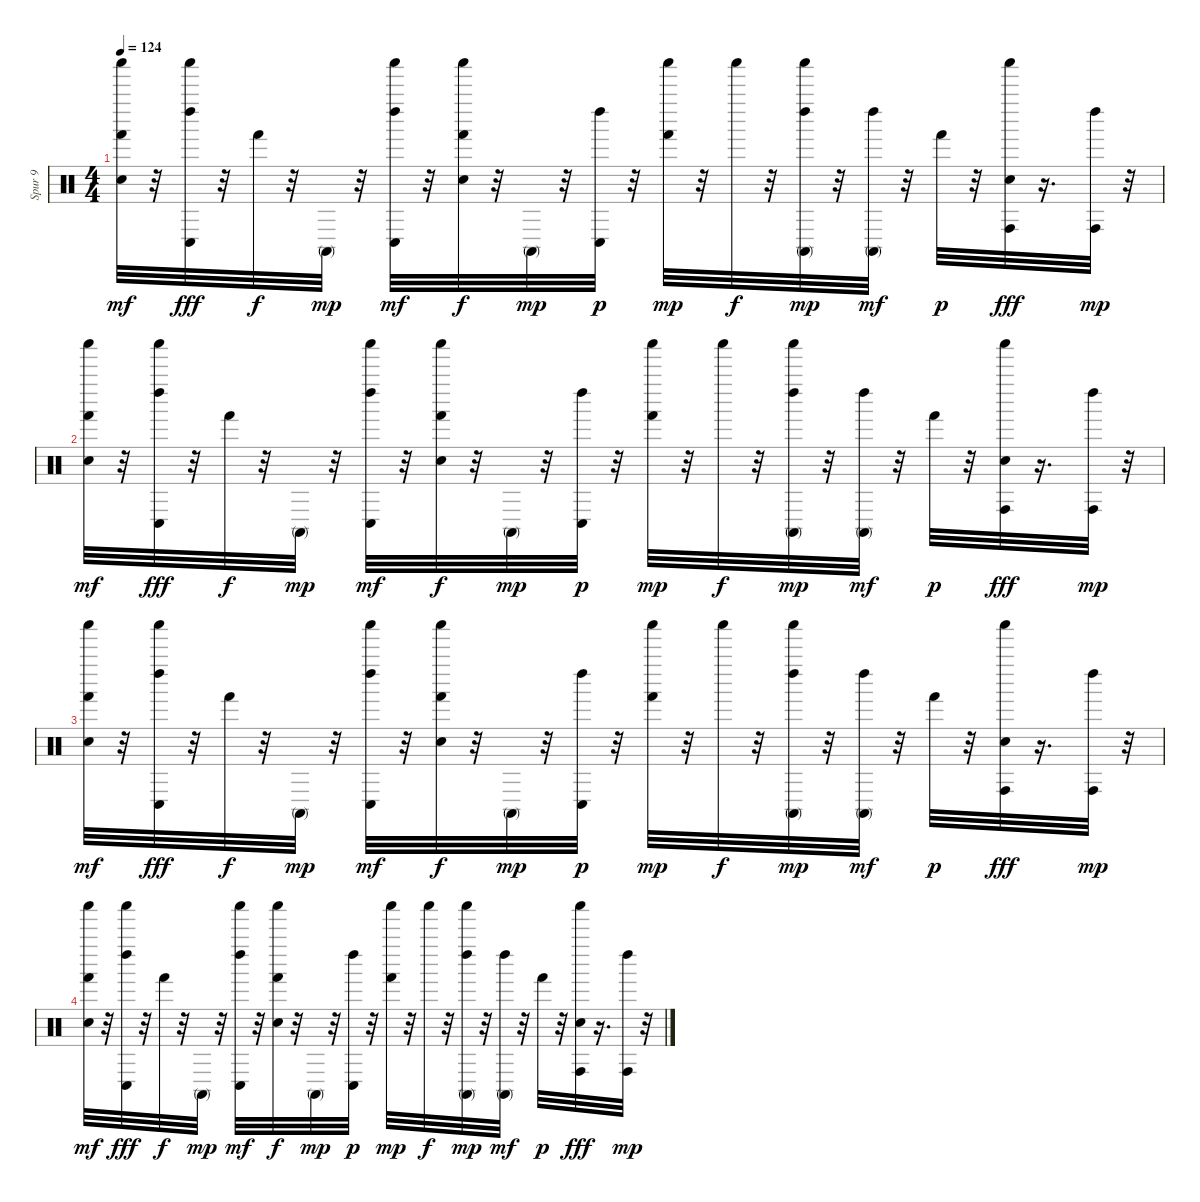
\track ("Spur 9" "Spur 9") {instrument percussion}
\staff {score}
\articulation defaults
\ts (4 4)
\tempo 124
\clef neutral
\ks c
("Electric Snare (hit)" "Hand (hit)" "Shaker (hit)").32{dy mf} r.32 ("Conga low (hit)" "Left Maraca (hit)" "Shaker (hit)").32{dy fff} r.32 "Hand (hit)".32{dy f} r.32 "Conga high (mute)".32{dy mp} r.32 ("Conga low (hit)" "Left Maraca (hit)" "Shaker (hit)").32{dy mf} r.32 ("Electric Snare (hit)" "Hand (hit)" "Shaker (hit)").32{dy f} r.32 "Conga high (mute)".32{dy mp} r.32 ("Conga low (hit)" "Left Maraca (hit)").32{dy p} r.32 ("Hand (hit)" "Shaker (hit)").32{dy mp} r.32 "Shaker (hit)".32{dy f} r.32 ("Conga high (mute)" "Left Maraca (hit)" "Shaker (hit)").32{dy mp} r.32 ("Conga high (mute)" "Left Maraca (hit)").32{dy mf} r.32 "Hand (hit)".32{dy p} r.32 ("Electric Snare (hit)" "Conga high (hit)" "Shaker (hit)").32{dy fff} r.16{d} ("Conga high (hit)" "Left Maraca (hit)").32{dy mp} r.32 |
("Electric Snare (hit)" "Hand (hit)" "Shaker (hit)").32{dy mf} r.32 ("Conga low (hit)" "Left Maraca (hit)" "Shaker (hit)").32{dy fff} r.32 "Hand (hit)".32{dy f} r.32 "Conga high (mute)".32{dy mp} r.32 ("Conga low (hit)" "Left Maraca (hit)" "Shaker (hit)").32{dy mf} r.32 ("Electric Snare (hit)" "Hand (hit)" "Shaker (hit)").32{dy f} r.32 "Conga high (mute)".32{dy mp} r.32 ("Conga low (hit)" "Left Maraca (hit)").32{dy p} r.32 ("Hand (hit)" "Shaker (hit)").32{dy mp} r.32 "Shaker (hit)".32{dy f} r.32 ("Conga high (mute)" "Left Maraca (hit)" "Shaker (hit)").32{dy mp} r.32 ("Conga high (mute)" "Left Maraca (hit)").32{dy mf} r.32 "Hand (hit)".32{dy p} r.32 ("Electric Snare (hit)" "Conga high (hit)" "Shaker (hit)").32{dy fff} r.16{d} ("Conga high (hit)" "Left Maraca (hit)").32{dy mp} r.32 |
("Electric Snare (hit)" "Hand (hit)" "Shaker (hit)").32{dy mf} r.32 ("Conga low (hit)" "Left Maraca (hit)" "Shaker (hit)").32{dy fff} r.32 "Hand (hit)".32{dy f} r.32 "Conga high (mute)".32{dy mp} r.32 ("Conga low (hit)" "Left Maraca (hit)" "Shaker (hit)").32{dy mf} r.32 ("Electric Snare (hit)" "Hand (hit)" "Shaker (hit)").32{dy f} r.32 "Conga high (mute)".32{dy mp} r.32 ("Conga low (hit)" "Left Maraca (hit)").32{dy p} r.32 ("Hand (hit)" "Shaker (hit)").32{dy mp} r.32 "Shaker (hit)".32{dy f} r.32 ("Conga high (mute)" "Left Maraca (hit)" "Shaker (hit)").32{dy mp} r.32 ("Conga high (mute)" "Left Maraca (hit)").32{dy mf} r.32 "Hand (hit)".32{dy p} r.32 ("Electric Snare (hit)" "Conga high (hit)" "Shaker (hit)").32{dy fff} r.16{d} ("Conga high (hit)" "Left Maraca (hit)").32{dy mp} r.32 |
("Electric Snare (hit)" "Hand (hit)" "Shaker (hit)").32{dy mf} r.32 ("Conga low (hit)" "Left Maraca (hit)" "Shaker (hit)").32{dy fff} r.32 "Hand (hit)".32{dy f} r.32 "Conga high (mute)".32{dy mp} r.32 ("Conga low (hit)" "Left Maraca (hit)" "Shaker (hit)").32{dy mf} r.32 ("Electric Snare (hit)" "Hand (hit)" "Shaker (hit)").32{dy f} r.32 "Conga high (mute)".32{dy mp} r.32 ("Conga low (hit)" "Left Maraca (hit)").32{dy p} r.32 ("Hand (hit)" "Shaker (hit)").32{dy mp} r.32 "Shaker (hit)".32{dy f} r.32 ("Conga high (mute)" "Left Maraca (hit)" "Shaker (hit)").32{dy mp} r.32 ("Conga high (mute)" "Left Maraca (hit)").32{dy mf} r.32 "Hand (hit)".32{dy p} r.32 ("Electric Snare (hit)" "Conga high (hit)" "Shaker (hit)").32{dy fff} r.16{d} ("Conga high (hit)" "Left Maraca (hit)").32{dy mp} r.32
